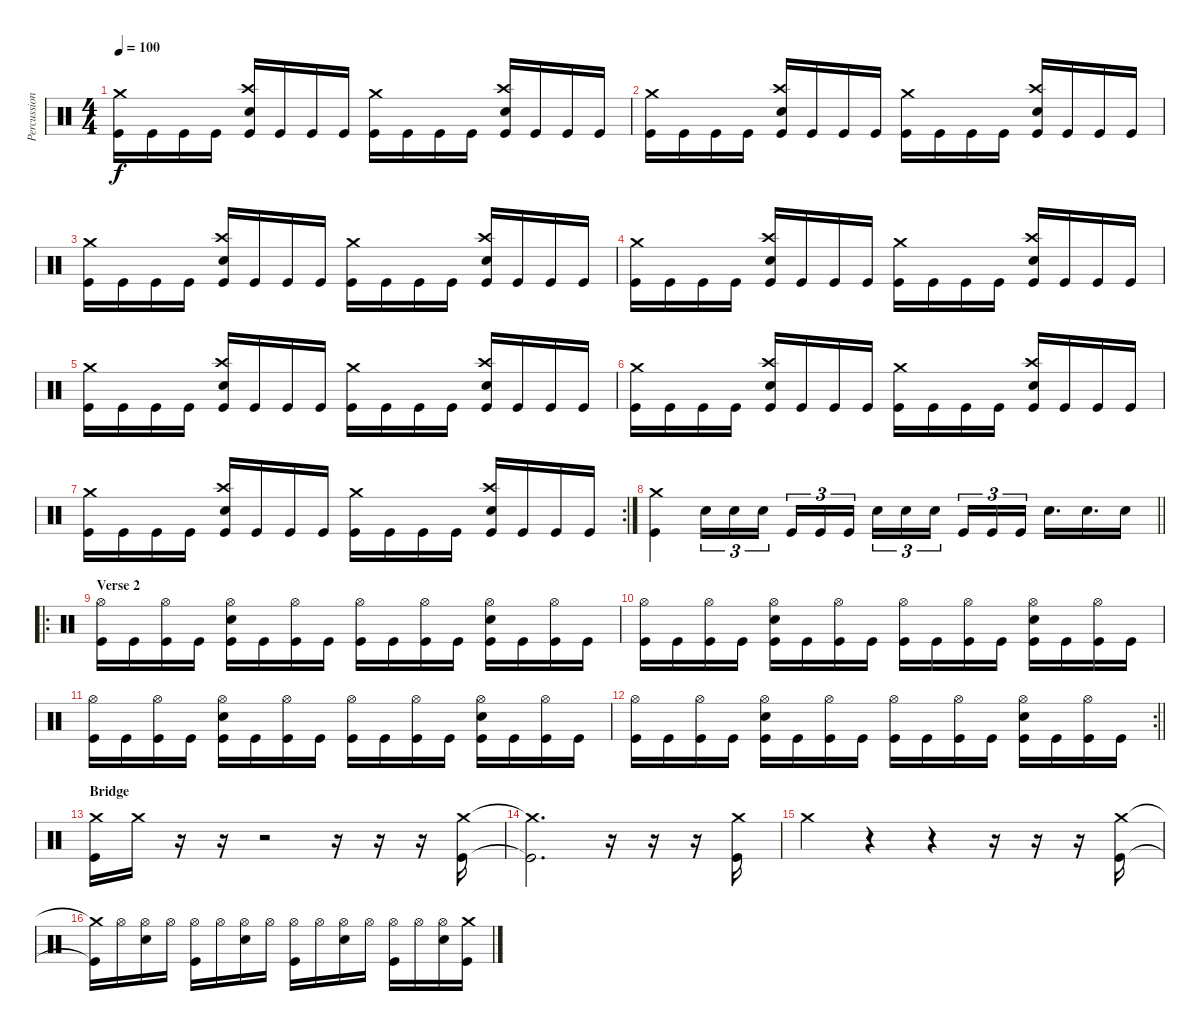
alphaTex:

\track ("Percussion" "Percussion") {instrument percussion}
\staff {score}
\articulation defaults
\ts (4 4)
\tempo 100
\clef neutral
\ks c
("Crash medium (hit)" "Kick (hit)").16{dy f} "Kick (hit)".16 "Kick (hit)".16 "Kick (hit)".16 ("Crash high (hit)" "Snare (hit) 2" "Kick (hit)").16 "Kick (hit)".16 "Kick (hit)".16 "Kick (hit)".16 ("Crash medium (hit)" "Kick (hit)").16 "Kick (hit)".16 "Kick (hit)".16 "Kick (hit)".16 ("Crash high (hit)" "Snare (hit) 2" "Kick (hit)").16 "Kick (hit)".16 "Kick (hit)".16 "Kick (hit)".16 |
("Crash medium (hit)" "Kick (hit)").16 "Kick (hit)".16 "Kick (hit)".16 "Kick (hit)".16 ("Crash high (hit)" "Snare (hit) 2" "Kick (hit)").16 "Kick (hit)".16 "Kick (hit)".16 "Kick (hit)".16 ("Crash medium (hit)" "Kick (hit)").16 "Kick (hit)".16 "Kick (hit)".16 "Kick (hit)".16 ("Crash high (hit)" "Snare (hit) 2" "Kick (hit)").16 "Kick (hit)".16 "Kick (hit)".16 "Kick (hit)".16 |
("Crash medium (hit)" "Kick (hit)").16 "Kick (hit)".16 "Kick (hit)".16 "Kick (hit)".16 ("Crash high (hit)" "Snare (hit) 2" "Kick (hit)").16 "Kick (hit)".16 "Kick (hit)".16 "Kick (hit)".16 ("Crash medium (hit)" "Kick (hit)").16 "Kick (hit)".16 "Kick (hit)".16 "Kick (hit)".16 ("Crash high (hit)" "Snare (hit) 2" "Kick (hit)").16 "Kick (hit)".16 "Kick (hit)".16 "Kick (hit)".16 |
("Crash medium (hit)" "Kick (hit)").16 "Kick (hit)".16 "Kick (hit)".16 "Kick (hit)".16 ("Crash high (hit)" "Snare (hit) 2" "Kick (hit)").16 "Kick (hit)".16 "Kick (hit)".16 "Kick (hit)".16 ("Crash medium (hit)" "Kick (hit)").16 "Kick (hit)".16 "Kick (hit)".16 "Kick (hit)".16 ("Crash high (hit)" "Snare (hit) 2" "Kick (hit)").16 "Kick (hit)".16 "Kick (hit)".16 "Kick (hit)".16 |
("Crash medium (hit)" "Kick (hit)").16 "Kick (hit)".16 "Kick (hit)".16 "Kick (hit)".16 ("Crash high (hit)" "Snare (hit) 2" "Kick (hit)").16 "Kick (hit)".16 "Kick (hit)".16 "Kick (hit)".16 ("Crash medium (hit)" "Kick (hit)").16 "Kick (hit)".16 "Kick (hit)".16 "Kick (hit)".16 ("Crash high (hit)" "Snare (hit) 2" "Kick (hit)").16 "Kick (hit)".16 "Kick (hit)".16 "Kick (hit)".16 |
("Crash medium (hit)" "Kick (hit)").16 "Kick (hit)".16 "Kick (hit)".16 "Kick (hit)".16 ("Crash high (hit)" "Snare (hit) 2" "Kick (hit)").16 "Kick (hit)".16 "Kick (hit)".16 "Kick (hit)".16 ("Crash medium (hit)" "Kick (hit)").16 "Kick (hit)".16 "Kick (hit)".16 "Kick (hit)".16 ("Crash high (hit)" "Snare (hit) 2" "Kick (hit)").16 "Kick (hit)".16 "Kick (hit)".16 "Kick (hit)".16 |
\rc 2
("Crash medium (hit)" "Kick (hit)").16 "Kick (hit)".16 "Kick (hit)".16 "Kick (hit)".16 ("Crash high (hit)" "Snare (hit) 2" "Kick (hit)").16 "Kick (hit)".16 "Kick (hit)".16 "Kick (hit)".16 ("Crash medium (hit)" "Kick (hit)").16 "Kick (hit)".16 "Kick (hit)".16 "Kick (hit)".16 ("Crash high (hit)" "Snare (hit) 2" "Kick (hit)").16 "Kick (hit)".16 "Kick (hit)".16 "Kick (hit)".16 |
\barLineRight lightlight
("Crash medium (hit)" "Kick (hit)").4 "Snare (hit) 2".16{tu (3 2)} "Snare (hit) 2".16{tu (3 2)} "Snare (hit) 2".16{tu (3 2) beam splitsecondary} "Kick (hit)".16{tu (3 2)} "Kick (hit)".16{tu (3 2)} "Kick (hit)".16{tu (3 2)} "Snare (hit) 2".16{tu (3 2)} "Snare (hit) 2".16{tu (3 2)} "Snare (hit) 2".16{tu (3 2) beam splitsecondary} "Kick (hit)".16{tu (3 2)} "Kick (hit)".16{tu (3 2)} "Kick (hit)".16{tu (3 2)} "Snare (hit) 2".16{d} "Snare (hit) 2".16{d} "Snare (hit) 2".16 |
\ro
\section ("" "Verse 2")
("Hi-Hat (open)" "Kick (hit)").16 "Kick (hit)".16 ("Hi-Hat (open)" "Kick (hit)").16 "Kick (hit)".16 ("Hi-Hat (open)" "Snare (hit) 2" "Kick (hit)").16 "Kick (hit)".16 ("Hi-Hat (open)" "Kick (hit)").16 "Kick (hit)".16 ("Hi-Hat (open)" "Kick (hit)").16 "Kick (hit)".16 ("Hi-Hat (open)" "Kick (hit)").16 "Kick (hit)".16 ("Hi-Hat (open)" "Snare (hit) 2" "Kick (hit)").16 "Kick (hit)".16 ("Hi-Hat (open)" "Kick (hit)").16 "Kick (hit)".16 |
("Hi-Hat (open)" "Kick (hit)").16 "Kick (hit)".16 ("Hi-Hat (open)" "Kick (hit)").16 "Kick (hit)".16 ("Hi-Hat (open)" "Snare (hit) 2" "Kick (hit)").16 "Kick (hit)".16 ("Hi-Hat (open)" "Kick (hit)").16 "Kick (hit)".16 ("Hi-Hat (open)" "Kick (hit)").16 "Kick (hit)".16 ("Hi-Hat (open)" "Kick (hit)").16 "Kick (hit)".16 ("Hi-Hat (open)" "Snare (hit) 2" "Kick (hit)").16 "Kick (hit)".16 ("Hi-Hat (open)" "Kick (hit)").16 "Kick (hit)".16 |
("Hi-Hat (open)" "Kick (hit)").16 "Kick (hit)".16 ("Hi-Hat (open)" "Kick (hit)").16 "Kick (hit)".16 ("Hi-Hat (open)" "Snare (hit) 2" "Kick (hit)").16 "Kick (hit)".16 ("Hi-Hat (open)" "Kick (hit)").16 "Kick (hit)".16 ("Hi-Hat (open)" "Kick (hit)").16 "Kick (hit)".16 ("Hi-Hat (open)" "Kick (hit)").16 "Kick (hit)".16 ("Hi-Hat (open)" "Snare (hit) 2" "Kick (hit)").16 "Kick (hit)".16 ("Hi-Hat (open)" "Kick (hit)").16 "Kick (hit)".16 |
\rc 2
\barLineRight lightlight
("Hi-Hat (open)" "Kick (hit)").16 "Kick (hit)".16 ("Hi-Hat (open)" "Kick (hit)").16 "Kick (hit)".16 ("Hi-Hat (open)" "Snare (hit) 2" "Kick (hit)").16 "Kick (hit)".16 ("Hi-Hat (open)" "Kick (hit)").16 "Kick (hit)".16 ("Hi-Hat (open)" "Kick (hit)").16 "Kick (hit)".16 ("Hi-Hat (open)" "Kick (hit)").16 "Kick (hit)".16 ("Hi-Hat (open)" "Snare (hit) 2" "Kick (hit)").16 "Kick (hit)".16 ("Hi-Hat (open)" "Kick (hit)").16 "Kick (hit)".16 |
\section ("" "Bridge")
("Crash medium (hit)" "Kick (hit)").16 "Crash medium (hit)".16{volume 0} r.16 r.16 r.2 r.16 r.16 r.16{volume 13} ("Crash medium (hit)" "Kick (hit)").16 |
("Crash medium (hit)"{t} "Kick (hit)"{t}).2{d} r.16 r.16 r.16 ("Crash medium (hit)" "Kick (hit)").16 |
"Crash medium (hit)".4{volume 0} r.4 r.4 r.16 r.16 r.16{volume 13} ("Crash medium (hit)" "Kick (hit)").16 |
("Crash medium (hit)"{t} "Kick (hit)"{t}).16 "Hi-Hat (open)".16 ("Hi-Hat (open)" "Snare (hit) 2").16 "Hi-Hat (open)".16 ("Hi-Hat (open)" "Kick (hit)").16 "Hi-Hat (open)".16 ("Hi-Hat (open)" "Snare (hit) 2").16 "Hi-Hat (open)".16 ("Hi-Hat (open)" "Kick (hit)").16 "Hi-Hat (open)".16 ("Hi-Hat (open)" "Snare (hit) 2").16 "Hi-Hat (open)".16 ("Hi-Hat (open)" "Kick (hit)").16 "Hi-Hat (open)".16 ("Hi-Hat (open)" "Snare (hit) 2").16 ("Crash medium (hit)" "Kick (hit)").16
